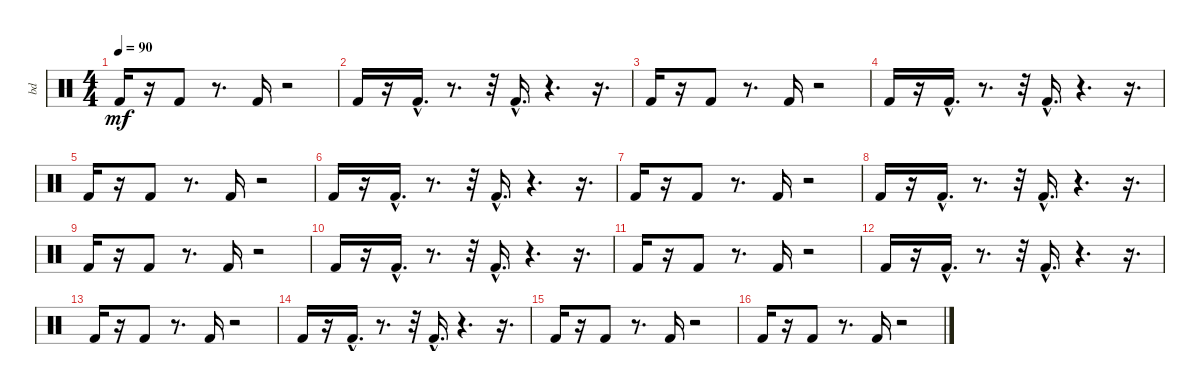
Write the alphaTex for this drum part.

\track ("bd" "bd") {instrument percussion}
\staff {score}
\articulation defaults
\ts (4 4)
\tempo 90
\clef neutral
\ks c "Kick (hit) 2".16{dy mf}
r.16 "Kick (hit) 2".8 r.8{d} "Kick (hit) 2".16 r.2 |
"Kick (hit) 2".16 r.16 "Kick (hit) 2"{hac}.16{d} r.8{d} r.32 "Kick (hit) 2"{hac}.16{d} r.4{d} r.16{d} |
"Kick (hit) 2".16 r.16 "Kick (hit) 2".8 r.8{d} "Kick (hit) 2".16 r.2 |
"Kick (hit) 2".16 r.16 "Kick (hit) 2"{hac}.16{d} r.8{d} r.32 "Kick (hit) 2"{hac}.16{d} r.4{d} r.16{d} |
"Kick (hit) 2".16 r.16 "Kick (hit) 2".8 r.8{d} "Kick (hit) 2".16 r.2 |
"Kick (hit) 2".16 r.16 "Kick (hit) 2"{hac}.16{d} r.8{d} r.32 "Kick (hit) 2"{hac}.16{d} r.4{d} r.16{d} |
"Kick (hit) 2".16 r.16 "Kick (hit) 2".8 r.8{d} "Kick (hit) 2".16 r.2 |
"Kick (hit) 2".16 r.16 "Kick (hit) 2"{hac}.16{d} r.8{d} r.32 "Kick (hit) 2"{hac}.16{d} r.4{d} r.16{d} |
"Kick (hit) 2".16 r.16 "Kick (hit) 2".8 r.8{d} "Kick (hit) 2".16 r.2 |
"Kick (hit) 2".16 r.16 "Kick (hit) 2"{hac}.16{d} r.8{d} r.32 "Kick (hit) 2"{hac}.16{d} r.4{d} r.16{d} |
"Kick (hit) 2".16 r.16 "Kick (hit) 2".8 r.8{d} "Kick (hit) 2".16 r.2 |
"Kick (hit) 2".16 r.16 "Kick (hit) 2"{hac}.16{d} r.8{d} r.32 "Kick (hit) 2"{hac}.16{d} r.4{d} r.16{d} |
"Kick (hit) 2".16 r.16 "Kick (hit) 2".8 r.8{d} "Kick (hit) 2".16 r.2 |
"Kick (hit) 2".16 r.16 "Kick (hit) 2"{hac}.16{d} r.8{d} r.32 "Kick (hit) 2"{hac}.16{d} r.4{d} r.16{d} |
"Kick (hit) 2".16 r.16 "Kick (hit) 2".8 r.8{d} "Kick (hit) 2".16 r.2 |
"Kick (hit) 2".16 r.16 "Kick (hit) 2".8 r.8{d} "Kick (hit) 2".16 r.2
